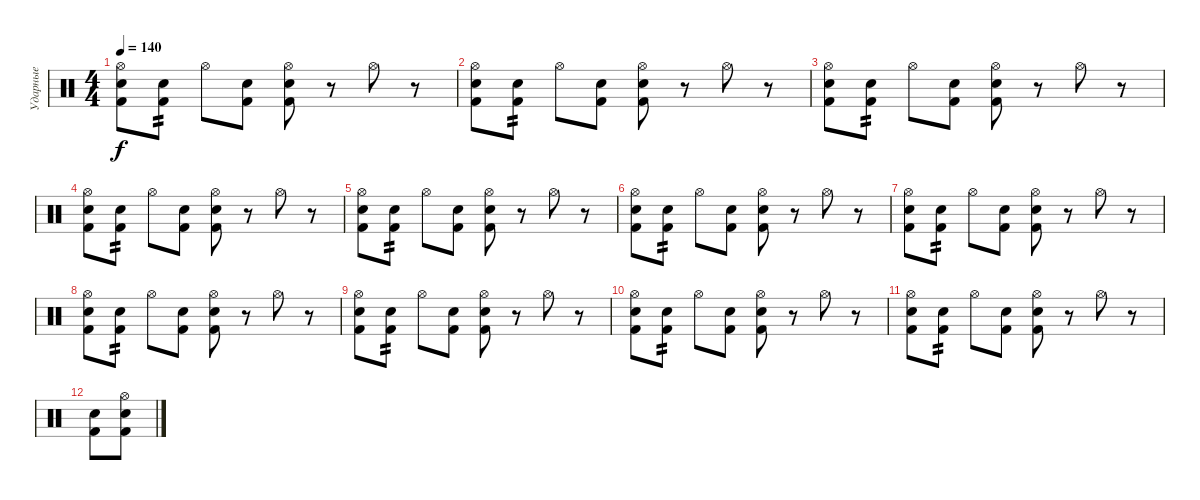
\track ("Ударные" "Ударные") {instrument percussion}
\staff {score}
\articulation defaults
\ts (4 4)
\tempo 140
\clef neutral
\ks c
("Snare (hit) 2" "Kick (hit) 2" "Hi-Hat (open)").8{dy f} ("Snare (hit) 2" "Kick (hit) 2").8{tp 2} "Hi-Hat (open)".8 ("Snare (hit) 2" "Kick (hit) 2").8 ("Snare (hit) 2" "Kick (hit) 2" "Hi-Hat (open)").8 r.8 "Hi-Hat (open)".8 r.8 |
("Snare (hit) 2" "Kick (hit) 2" "Hi-Hat (open)").8 ("Snare (hit) 2" "Kick (hit) 2").8{tp 2} "Hi-Hat (open)".8 ("Snare (hit) 2" "Kick (hit) 2").8 ("Snare (hit) 2" "Kick (hit) 2" "Hi-Hat (open)").8 r.8 "Hi-Hat (open)".8 r.8 |
("Snare (hit) 2" "Kick (hit) 2" "Hi-Hat (open)").8 ("Snare (hit) 2" "Kick (hit) 2").8{tp 2} "Hi-Hat (open)".8 ("Snare (hit) 2" "Kick (hit) 2").8 ("Snare (hit) 2" "Kick (hit) 2" "Hi-Hat (open)").8 r.8 "Hi-Hat (open)".8 r.8 |
("Snare (hit) 2" "Kick (hit) 2" "Hi-Hat (open)").8 ("Snare (hit) 2" "Kick (hit) 2").8{tp 2} "Hi-Hat (open)".8 ("Snare (hit) 2" "Kick (hit) 2").8 ("Snare (hit) 2" "Kick (hit) 2" "Hi-Hat (open)").8 r.8 "Hi-Hat (open)".8 r.8 |
("Snare (hit) 2" "Kick (hit) 2" "Hi-Hat (open)").8 ("Snare (hit) 2" "Kick (hit) 2").8{tp 2} "Hi-Hat (open)".8 ("Snare (hit) 2" "Kick (hit) 2").8 ("Snare (hit) 2" "Kick (hit) 2" "Hi-Hat (open)").8 r.8 "Hi-Hat (open)".8 r.8 |
("Snare (hit) 2" "Kick (hit) 2" "Hi-Hat (open)").8 ("Snare (hit) 2" "Kick (hit) 2").8{tp 2} "Hi-Hat (open)".8 ("Snare (hit) 2" "Kick (hit) 2").8 ("Snare (hit) 2" "Kick (hit) 2" "Hi-Hat (open)").8 r.8 "Hi-Hat (open)".8 r.8 |
("Snare (hit) 2" "Kick (hit) 2" "Hi-Hat (open)").8 ("Snare (hit) 2" "Kick (hit) 2").8{tp 2} "Hi-Hat (open)".8 ("Snare (hit) 2" "Kick (hit) 2").8 ("Snare (hit) 2" "Kick (hit) 2" "Hi-Hat (open)").8 r.8 "Hi-Hat (open)".8 r.8 |
("Snare (hit) 2" "Kick (hit) 2" "Hi-Hat (open)").8 ("Snare (hit) 2" "Kick (hit) 2").8{tp 2} "Hi-Hat (open)".8 ("Snare (hit) 2" "Kick (hit) 2").8 ("Snare (hit) 2" "Kick (hit) 2" "Hi-Hat (open)").8 r.8 "Hi-Hat (open)".8 r.8 |
("Snare (hit) 2" "Kick (hit) 2" "Hi-Hat (open)").8 ("Snare (hit) 2" "Kick (hit) 2").8{tp 2} "Hi-Hat (open)".8 ("Snare (hit) 2" "Kick (hit) 2").8 ("Snare (hit) 2" "Kick (hit) 2" "Hi-Hat (open)").8 r.8 "Hi-Hat (open)".8 r.8 |
("Snare (hit) 2" "Kick (hit) 2" "Hi-Hat (open)").8 ("Snare (hit) 2" "Kick (hit) 2").8{tp 2} "Hi-Hat (open)".8 ("Snare (hit) 2" "Kick (hit) 2").8 ("Snare (hit) 2" "Kick (hit) 2" "Hi-Hat (open)").8 r.8 "Hi-Hat (open)".8 r.8 |
("Snare (hit) 2" "Kick (hit) 2" "Hi-Hat (open)").8 ("Snare (hit) 2" "Kick (hit) 2").8{tp 2} "Hi-Hat (open)".8 ("Snare (hit) 2" "Kick (hit) 2").8 ("Snare (hit) 2" "Kick (hit) 2" "Hi-Hat (open)").8 r.8 "Hi-Hat (open)".8 r.8 |
("Snare (hit) 2" "Kick (hit) 2").8 ("Snare (hit) 2" "Kick (hit) 2" "Hi-Hat (open)").8
